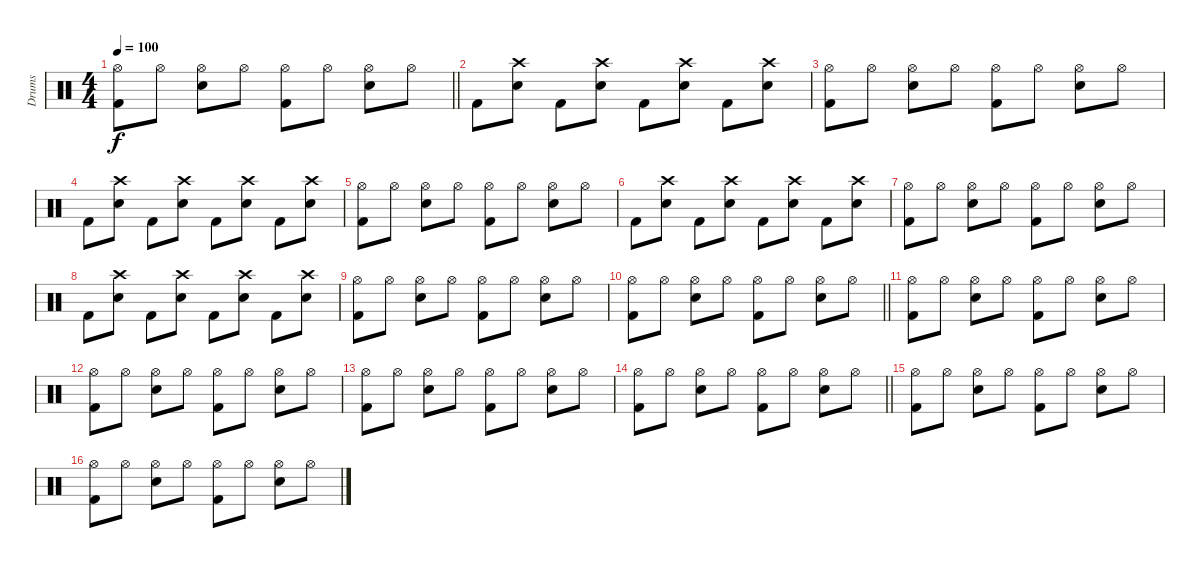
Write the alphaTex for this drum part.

\track ("Drums" "Drums") {instrument percussion}
\staff {score}
\articulation defaults
\ts (4 4)
\tempo 100
\clef neutral
\barLineRight lightlight
\ks c
("Hi-Hat (open)" "Kick (hit) 2").8{dy f} "Hi-Hat (open)".8 ("Hi-Hat (open)" "Electric Snare (hit)").8 "Hi-Hat (open)".8 ("Hi-Hat (open)" "Kick (hit) 2").8 "Hi-Hat (open)".8 ("Hi-Hat (open)" "Electric Snare (hit)").8 "Hi-Hat (open)".8 |
"Kick (hit) 2".8 ("Crash high (hit)" "Electric Snare (hit)").8 "Kick (hit) 2".8 ("Crash high (hit)" "Electric Snare (hit)").8 "Kick (hit) 2".8 ("Crash high (hit)" "Electric Snare (hit)").8 "Kick (hit) 2".8 ("Crash high (hit)" "Electric Snare (hit)").8 |
("Hi-Hat (open)" "Kick (hit) 2").8 "Hi-Hat (open)".8 ("Hi-Hat (open)" "Electric Snare (hit)").8 "Hi-Hat (open)".8 ("Hi-Hat (open)" "Kick (hit) 2").8 "Hi-Hat (open)".8 ("Hi-Hat (open)" "Electric Snare (hit)").8 "Hi-Hat (open)".8 |
"Kick (hit) 2".8 ("Crash high (hit)" "Electric Snare (hit)").8 "Kick (hit) 2".8 ("Crash high (hit)" "Electric Snare (hit)").8 "Kick (hit) 2".8 ("Crash high (hit)" "Electric Snare (hit)").8 "Kick (hit) 2".8 ("Crash high (hit)" "Electric Snare (hit)").8 |
("Hi-Hat (open)" "Kick (hit) 2").8 "Hi-Hat (open)".8 ("Hi-Hat (open)" "Electric Snare (hit)").8 "Hi-Hat (open)".8 ("Hi-Hat (open)" "Kick (hit) 2").8 "Hi-Hat (open)".8 ("Hi-Hat (open)" "Electric Snare (hit)").8 "Hi-Hat (open)".8 |
"Kick (hit) 2".8 ("Crash high (hit)" "Electric Snare (hit)").8 "Kick (hit) 2".8 ("Crash high (hit)" "Electric Snare (hit)").8 "Kick (hit) 2".8 ("Crash high (hit)" "Electric Snare (hit)").8 "Kick (hit) 2".8 ("Crash high (hit)" "Electric Snare (hit)").8 |
("Hi-Hat (open)" "Kick (hit) 2").8 "Hi-Hat (open)".8 ("Hi-Hat (open)" "Electric Snare (hit)").8 "Hi-Hat (open)".8 ("Hi-Hat (open)" "Kick (hit) 2").8 "Hi-Hat (open)".8 ("Hi-Hat (open)" "Electric Snare (hit)").8 "Hi-Hat (open)".8 |
"Kick (hit) 2".8 ("Crash high (hit)" "Electric Snare (hit)").8 "Kick (hit) 2".8 ("Crash high (hit)" "Electric Snare (hit)").8 "Kick (hit) 2".8 ("Crash high (hit)" "Electric Snare (hit)").8 "Kick (hit) 2".8 ("Crash high (hit)" "Electric Snare (hit)").8 |
("Hi-Hat (open)" "Kick (hit) 2").8 "Hi-Hat (open)".8 ("Hi-Hat (open)" "Electric Snare (hit)").8 "Hi-Hat (open)".8 ("Hi-Hat (open)" "Kick (hit) 2").8 "Hi-Hat (open)".8 ("Hi-Hat (open)" "Electric Snare (hit)").8 "Hi-Hat (open)".8 |
\barLineRight lightlight
("Hi-Hat (open)" "Kick (hit) 2").8 "Hi-Hat (open)".8 ("Hi-Hat (open)" "Electric Snare (hit)").8 "Hi-Hat (open)".8 ("Hi-Hat (open)" "Kick (hit) 2").8 "Hi-Hat (open)".8 ("Hi-Hat (open)" "Electric Snare (hit)").8 "Hi-Hat (open)".8 |
("Hi-Hat (open)" "Kick (hit) 2").8 "Hi-Hat (open)".8 ("Hi-Hat (open)" "Electric Snare (hit)").8 "Hi-Hat (open)".8 ("Hi-Hat (open)" "Kick (hit) 2").8 "Hi-Hat (open)".8 ("Hi-Hat (open)" "Electric Snare (hit)").8 "Hi-Hat (open)".8 |
("Hi-Hat (open)" "Kick (hit) 2").8 "Hi-Hat (open)".8 ("Hi-Hat (open)" "Electric Snare (hit)").8 "Hi-Hat (open)".8 ("Hi-Hat (open)" "Kick (hit) 2").8 "Hi-Hat (open)".8 ("Hi-Hat (open)" "Electric Snare (hit)").8 "Hi-Hat (open)".8 |
("Hi-Hat (open)" "Kick (hit) 2").8 "Hi-Hat (open)".8 ("Hi-Hat (open)" "Electric Snare (hit)").8 "Hi-Hat (open)".8 ("Hi-Hat (open)" "Kick (hit) 2").8 "Hi-Hat (open)".8 ("Hi-Hat (open)" "Electric Snare (hit)").8 "Hi-Hat (open)".8 |
\barLineRight lightlight
("Hi-Hat (open)" "Kick (hit) 2").8 "Hi-Hat (open)".8 ("Hi-Hat (open)" "Electric Snare (hit)").8 "Hi-Hat (open)".8 ("Hi-Hat (open)" "Kick (hit) 2").8 "Hi-Hat (open)".8 ("Hi-Hat (open)" "Electric Snare (hit)").8 "Hi-Hat (open)".8 |
("Hi-Hat (open)" "Kick (hit) 2").8 "Hi-Hat (open)".8 ("Hi-Hat (open)" "Electric Snare (hit)").8 "Hi-Hat (open)".8 ("Hi-Hat (open)" "Kick (hit) 2").8 "Hi-Hat (open)".8 ("Hi-Hat (open)" "Electric Snare (hit)").8 "Hi-Hat (open)".8 |
("Hi-Hat (open)" "Kick (hit) 2").8 "Hi-Hat (open)".8 ("Hi-Hat (open)" "Electric Snare (hit)").8 "Hi-Hat (open)".8 ("Hi-Hat (open)" "Kick (hit) 2").8 "Hi-Hat (open)".8 ("Hi-Hat (open)" "Electric Snare (hit)").8 "Hi-Hat (open)".8
